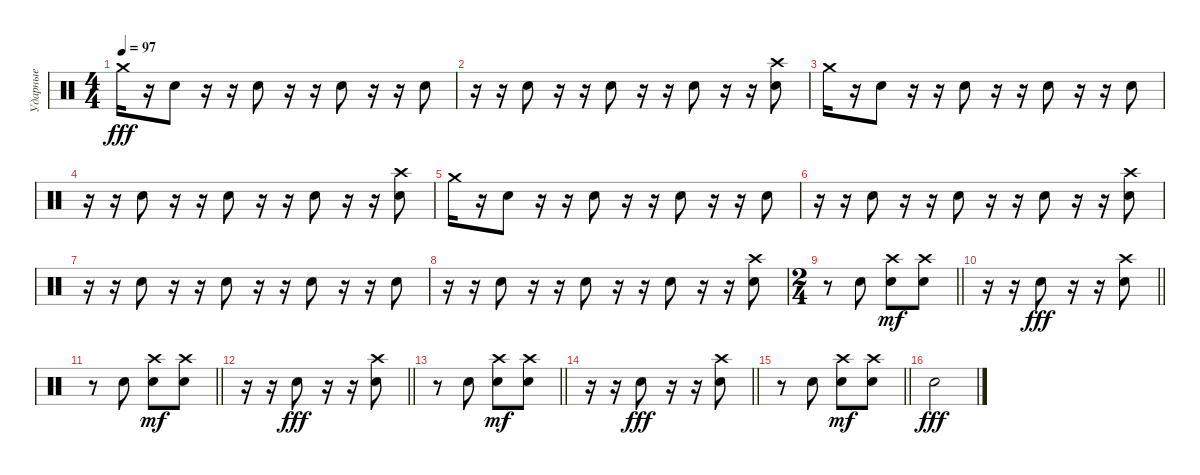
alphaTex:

\track ("Ударные" "Ударные") {instrument percussion}
\staff {score}
\articulation defaults
\ts (4 4)
\tempo 97
\clef neutral
\ks c "Crash medium (hit)".16{dy fff}
r.16 "Electric Snare (hit)".8 r.16 r.16 "Electric Snare (hit)".8 r.16 r.16 "Electric Snare (hit)".8 r.16 r.16 "Electric Snare (hit)".8 |
r.16 r.16 "Electric Snare (hit)".8 r.16 r.16 "Electric Snare (hit)".8 r.16 r.16 "Electric Snare (hit)".8 r.16 r.16 ("Electric Snare (hit)" "Crash high (hit)").8 |
"Crash medium (hit)".16 r.16 "Electric Snare (hit)".8 r.16 r.16 "Electric Snare (hit)".8 r.16 r.16 "Electric Snare (hit)".8 r.16 r.16 "Electric Snare (hit)".8 |
r.16 r.16 "Electric Snare (hit)".8 r.16 r.16 "Electric Snare (hit)".8 r.16 r.16 "Electric Snare (hit)".8 r.16 r.16 ("Electric Snare (hit)" "Crash high (hit)").8 |
"Crash medium (hit)".16 r.16 "Electric Snare (hit)".8 r.16 r.16 "Electric Snare (hit)".8 r.16 r.16 "Electric Snare (hit)".8 r.16 r.16 "Electric Snare (hit)".8 |
r.16 r.16 "Electric Snare (hit)".8 r.16 r.16 "Electric Snare (hit)".8 r.16 r.16 "Electric Snare (hit)".8 r.16 r.16 ("Electric Snare (hit)" "Crash high (hit)").8 |
r.16 r.16 "Electric Snare (hit)".8 r.16 r.16 "Electric Snare (hit)".8 r.16 r.16 "Electric Snare (hit)".8 r.16 r.16 "Electric Snare (hit)".8 |
r.16 r.16 "Electric Snare (hit)".8 r.16 r.16 "Electric Snare (hit)".8 r.16 r.16 "Electric Snare (hit)".8 r.16 r.16 ("Electric Snare (hit)" "Crash high (hit)").8 |
\ts (2 4)
\barLineRight lightlight
r.8 "Electric Snare (hit)".8 ("Electric Snare (hit)" "Crash high (hit)").8{dy mf} ("Electric Snare (hit)" "Crash high (hit)").8 |
\barLineRight lightlight
r.16 r.16 "Electric Snare (hit)".8{dy fff} r.16 r.16 ("Electric Snare (hit)" "Crash high (hit)").8 |
\barLineRight lightlight
r.8 "Electric Snare (hit)".8 ("Electric Snare (hit)" "Crash high (hit)").8{dy mf} ("Electric Snare (hit)" "Crash high (hit)").8 |
\barLineRight lightlight
r.16 r.16 "Electric Snare (hit)".8{dy fff} r.16 r.16 ("Electric Snare (hit)" "Crash high (hit)").8 |
\barLineRight lightlight
r.8 "Electric Snare (hit)".8 ("Electric Snare (hit)" "Crash high (hit)").8{dy mf} ("Electric Snare (hit)" "Crash high (hit)").8 |
\barLineRight lightlight
r.16 r.16 "Electric Snare (hit)".8{dy fff} r.16 r.16 ("Electric Snare (hit)" "Crash high (hit)").8 |
\barLineRight lightlight
r.8 "Electric Snare (hit)".8 ("Electric Snare (hit)" "Crash high (hit)").8{dy mf} ("Electric Snare (hit)" "Crash high (hit)").8 |
"Electric Snare (hit)".2{dy fff}
